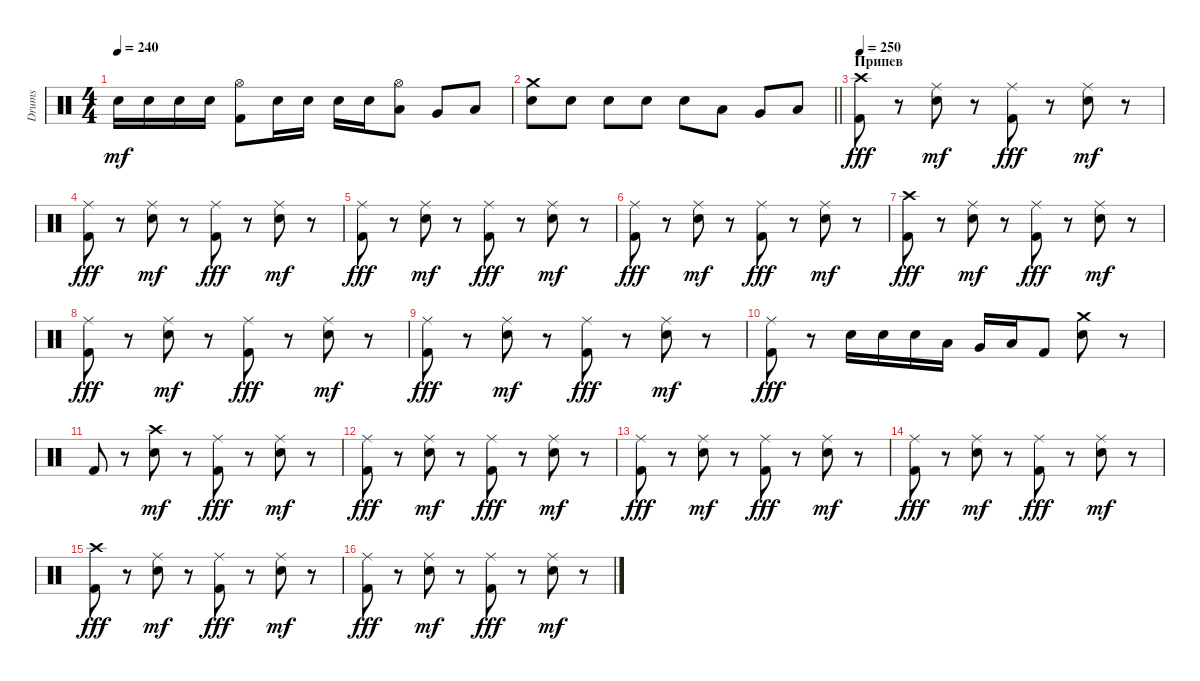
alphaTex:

\track ("Drums" "Drums") {instrument percussion}
\staff {score}
\articulation defaults
\ts (4 4)
\tempo 240
\clef neutral
\ks c "Electric Snare (hit)".16{dy mf} "Electric Snare (hit)".16 "Electric Snare (hit)".16 "Electric Snare (hit)".16
("Hi-Hat (open)" "Kick (hit) 2").8 "Electric Snare (hit)".16 "Electric Snare (hit)".16 "Electric Snare (hit)".16 "Electric Snare (hit)".16 ("Hi-Hat (open)" "Low Tom (hit)").8 "Very Low Tom (hit)".8 "Low Floor Tom (hit)".8 |
\barLineRight lightlight
("Crash medium (hit)" "Electric Snare (hit)").8 "Electric Snare (hit)".8 "Electric Snare (hit)".8 "Electric Snare (hit)".8 "Electric Snare (hit)".8 "Low Tom (hit)".8 "Very Low Tom (hit)".8 "Low Floor Tom (hit)".8 |
\section ("" "Припев")
\tempo 250
("Crash high (hit)" "Kick (hit) 2").8{dy fff} r.8 ("Ride (middle)" "Electric Snare (hit)").8{dy mf} r.8 ("Ride (middle)" "Kick (hit) 2").8{dy fff} r.8 ("Ride (middle)" "Electric Snare (hit)").8{dy mf} r.8 |
("Ride (middle)" "Kick (hit) 2").8{dy fff} r.8 ("Ride (middle)" "Electric Snare (hit)").8{dy mf} r.8 ("Ride (middle)" "Kick (hit) 2").8{dy fff} r.8 ("Ride (middle)" "Electric Snare (hit)").8{dy mf} r.8 |
("Ride (middle)" "Kick (hit) 2").8{dy fff} r.8 ("Ride (middle)" "Electric Snare (hit)").8{dy mf} r.8 ("Ride (middle)" "Kick (hit) 2").8{dy fff} r.8 ("Ride (middle)" "Electric Snare (hit)").8{dy mf} r.8 |
("Ride (middle)" "Kick (hit) 2").8{dy fff} r.8 ("Ride (middle)" "Electric Snare (hit)").8{dy mf} r.8 ("Ride (middle)" "Kick (hit) 2").8{dy fff} r.8 ("Ride (middle)" "Electric Snare (hit)").8{dy mf} r.8 |
("Crash high (hit)" "Kick (hit) 2").8{dy fff} r.8 ("Ride (middle)" "Electric Snare (hit)").8{dy mf} r.8 ("Ride (middle)" "Kick (hit) 2").8{dy fff} r.8 ("Ride (middle)" "Electric Snare (hit)").8{dy mf} r.8 |
("Ride (middle)" "Kick (hit) 2").8{dy fff} r.8 ("Ride (middle)" "Electric Snare (hit)").8{dy mf} r.8 ("Ride (middle)" "Kick (hit) 2").8{dy fff} r.8 ("Ride (middle)" "Electric Snare (hit)").8{dy mf} r.8 |
("Ride (middle)" "Kick (hit) 2").8{dy fff} r.8 ("Ride (middle)" "Electric Snare (hit)").8{dy mf} r.8 ("Ride (middle)" "Kick (hit) 2").8{dy fff} r.8 ("Ride (middle)" "Electric Snare (hit)").8{dy mf} r.8 |
("Ride (middle)" "Kick (hit) 2").8{dy fff} r.8 "Electric Snare (hit)".16 "Electric Snare (hit)".16 "Electric Snare (hit)".16 "Low Tom (hit)".16 "Very Low Tom (hit)".16 "Low Floor Tom (hit)".16 "Kick (hit) 2".8 ("Crash medium (hit)" "Electric Snare (hit)").8 r.8 |
"Kick (hit) 2".8 r.8 ("Crash high (hit)" "Electric Snare (hit)").8{dy mf} r.8 ("Ride (middle)" "Kick (hit) 2").8{dy fff} r.8 ("Ride (middle)" "Electric Snare (hit)").8{dy mf} r.8 |
("Ride (middle)" "Kick (hit) 2").8{dy fff} r.8 ("Ride (middle)" "Electric Snare (hit)").8{dy mf} r.8 ("Ride (middle)" "Kick (hit) 2").8{dy fff} r.8 ("Ride (middle)" "Electric Snare (hit)").8{dy mf} r.8 |
("Ride (middle)" "Kick (hit) 2").8{dy fff} r.8 ("Ride (middle)" "Electric Snare (hit)").8{dy mf} r.8 ("Ride (middle)" "Kick (hit) 2").8{dy fff} r.8 ("Ride (middle)" "Electric Snare (hit)").8{dy mf} r.8 |
("Ride (middle)" "Kick (hit) 2").8{dy fff} r.8 ("Ride (middle)" "Electric Snare (hit)").8{dy mf} r.8 ("Ride (middle)" "Kick (hit) 2").8{dy fff} r.8 ("Ride (middle)" "Electric Snare (hit)").8{dy mf} r.8 |
("Crash high (hit)" "Kick (hit) 2").8{dy fff} r.8 ("Ride (middle)" "Electric Snare (hit)").8{dy mf} r.8 ("Ride (middle)" "Kick (hit) 2").8{dy fff} r.8 ("Ride (middle)" "Electric Snare (hit)").8{dy mf} r.8 |
("Ride (middle)" "Kick (hit) 2").8{dy fff} r.8 ("Ride (middle)" "Electric Snare (hit)").8{dy mf} r.8 ("Ride (middle)" "Kick (hit) 2").8{dy fff} r.8 ("Ride (middle)" "Electric Snare (hit)").8{dy mf} r.8
